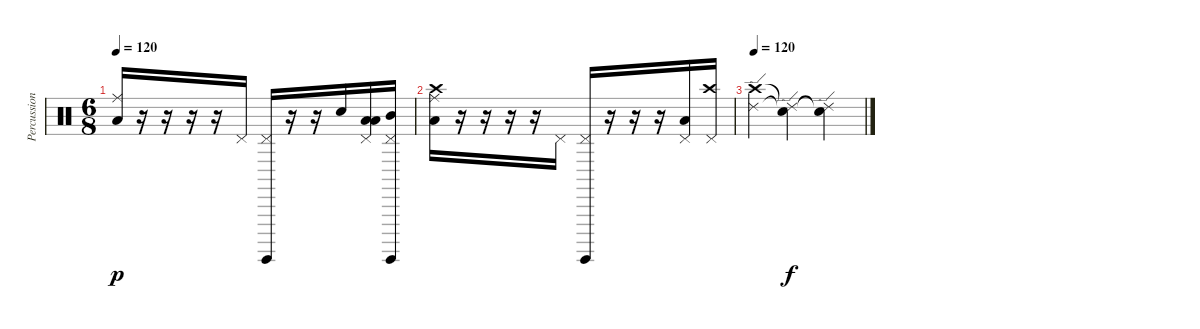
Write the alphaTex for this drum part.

\track ("Percussions" "Percussion") {instrument percussion}
\staff {score}
\articulation defaults
\ts (6 8)
\tempo 120
\clef neutral
\ks c
("Low Tom (hit)" "Ride (middle)").16{dy p} r.16 r.16 r.16 r.16 "Pedal Hi-Hat (hit)".16 ("Surdo (hit)" "Pedal Hi-Hat (hit)").16 r.16 r.16 "Electric Snare (hit)".16 ("Low Tom (hit)" "Pedal Hi-Hat (hit)" "Low Floor Tom (hit)").16 ("Surdo (hit)" "Pedal Hi-Hat (hit)" "Mid Tom (hit)").16 |
("Low Tom (hit)" "Ride (middle)" "Crash high (hit)").16 r.16 r.16 r.16 r.16 "Pedal Hi-Hat (hit)".16 ("Surdo (hit)" "Pedal Hi-Hat (hit)").16 r.16 r.16 r.16 ("Low Tom (hit)" "Pedal Hi-Hat (hit)").16 ("Crash high (hit)" "Pedal Hi-Hat (hit)").16 |
\tempo 120
("Crash high (hit)" "Ride (edge) 2").4 ("Ride (edge) 2"{t} "Snare (hit)"{t}).4{dy f} ("Snare (hit)"{t} "Ride (edge) 2"{t}).4
